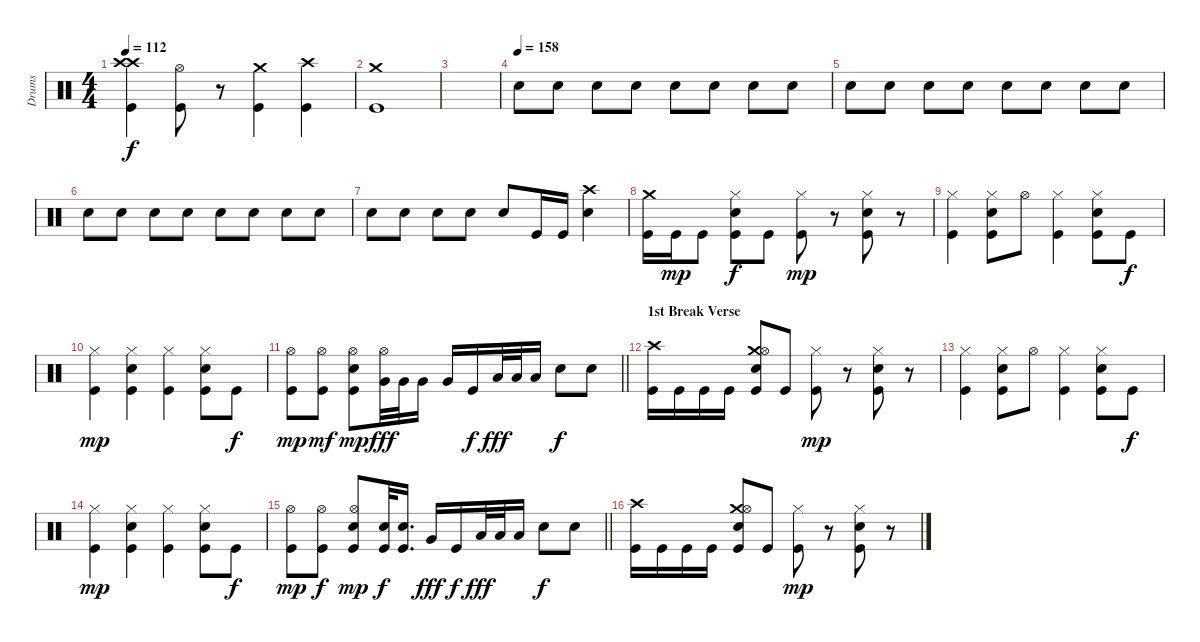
\track ("Drums" "Drums") {instrument percussion}
\staff {score}
\articulation defaults
\ts (4 4)
\tempo 112
\clef neutral
\ks c
("Crash high (hit)" "Crash high (hit)" "Kick (hit)").4{dy f} ("Hi-Hat (open)" "Kick (hit)").8 r.8 ("Crash medium (hit)" "Kick (hit)").4 ("Crash high (hit)" "Kick (hit)").4 |
("Crash medium (hit)" "Kick (hit)").1 |
|
\tempo (158)
"Snare (hit) 2".8{volume 16} "Snare (hit) 2".8 "Snare (hit) 2".8 "Snare (hit) 2".8 "Snare (hit) 2".8 "Snare (hit) 2".8 "Snare (hit) 2".8 "Snare (hit) 2".8 |
"Snare (hit) 2".8 "Snare (hit) 2".8 "Snare (hit) 2".8 "Snare (hit) 2".8 "Snare (hit) 2".8 "Snare (hit) 2".8 "Snare (hit) 2".8 "Snare (hit) 2".8 |
"Snare (hit) 2".8 "Snare (hit) 2".8 "Snare (hit) 2".8 "Snare (hit) 2".8 "Snare (hit) 2".8 "Snare (hit) 2".8 "Snare (hit) 2".8 "Snare (hit) 2".8 |
"Snare (hit) 2".8 "Snare (hit) 2".8 "Snare (hit) 2".8 "Snare (hit) 2".8 "Snare (hit) 2".8 "Kick (hit)".16 "Kick (hit)".16 ("Crash high (hit)" "Snare (hit) 2").4 |
("Crash medium (hit)" "Kick (hit)").16 "Kick (hit)".16{dy mp} "Kick (hit)".8 ("Hi-Hat (closed)" "Snare (hit) 2" "Kick (hit)").8{dy f} "Kick (hit)".8 ("Hi-Hat (closed)" "Kick (hit)").8{dy mp} r.8 ("Hi-Hat (closed)" "Snare (hit) 2" "Kick (hit)").8 r.8 |
("Hi-Hat (closed)" "Kick (hit)").4 ("Hi-Hat (closed)" "Snare (hit) 2" "Kick (hit)").8 "Hi-Hat (open)".8 ("Hi-Hat (closed)" "Kick (hit)").4 ("Hi-Hat (closed)" "Snare (hit) 2" "Kick (hit)").8 "Kick (hit)".8{dy f} |
("Hi-Hat (closed)" "Kick (hit)").4{dy mp} ("Hi-Hat (closed)" "Snare (hit) 2" "Kick (hit)").4 ("Hi-Hat (closed)" "Kick (hit)").4 ("Hi-Hat (closed)" "Snare (hit) 2" "Kick (hit)").8 "Kick (hit)".8{dy f} |
\barLineRight lightlight
("Hi-Hat (open)" "Kick (hit)").8{dy mp} ("Hi-Hat (open)" "Kick (hit)").8{dy mf} ("Hi-Hat (open)" "Snare (hit) 2" "Kick (hit)").8{dy mp} ("Hi-Hat (open)" "Very Low Tom (hit)").32{dy fff balance 16} "Very Low Tom (hit)".32{volume 11 balance 14} "Very Low Tom (hit)".16{balance 10} "Very Low Tom (hit)".16 "Kick (hit)".16{dy f balance 8} "Low Tom (hit)".32{dy fff balance 0} "Low Tom (hit)".32{balance 0} "Low Tom (hit)".16{balance 0} "Snare (hit) 2".8{dy f volume 13 balance 8} "Snare (hit) 2".8 |
\section ("" "1st Break Verse")
("Crash high (hit)" "Kick (hit)").16 "Kick (hit)".16 "Kick (hit)".16 "Kick (hit)".16 ("Crash medium (hit)" "Hi-Hat (open)" "Snare (hit) 2" "Kick (hit)").8 "Kick (hit)".8 ("Hi-Hat (closed)" "Kick (hit)").8{dy mp} r.8 ("Hi-Hat (closed)" "Snare (hit) 2" "Kick (hit)").8 r.8 |
("Hi-Hat (closed)" "Kick (hit)").4 ("Hi-Hat (closed)" "Snare (hit) 2" "Kick (hit)").8 "Hi-Hat (open)".8 ("Hi-Hat (closed)" "Kick (hit)").4 ("Hi-Hat (closed)" "Snare (hit) 2" "Kick (hit)").8 "Kick (hit)".8{dy f} |
("Hi-Hat (closed)" "Kick (hit)").4{dy mp} ("Hi-Hat (closed)" "Snare (hit) 2" "Kick (hit)").4 ("Hi-Hat (closed)" "Kick (hit)").4 ("Hi-Hat (closed)" "Snare (hit) 2" "Kick (hit)").8 "Kick (hit)".8{dy f} |
\barLineRight lightlight
("Hi-Hat (open)" "Kick (hit)").8{dy mp} ("Hi-Hat (open)" "Kick (hit)").8{dy f} ("Hi-Hat (open)" "Snare (hit) 2" "Kick (hit)").8{dy mp} ("Snare (hit) 2" "Kick (hit)").32{dy f} ("Snare (hit) 2" "Kick (hit)").16{d} "Very Low Tom (hit)".16{dy fff} "Kick (hit)".16{dy f balance 8} "Low Tom (hit)".32{dy fff balance 0} "Low Tom (hit)".32{balance 0} "Low Tom (hit)".16{balance 0} "Snare (hit) 2".8{dy f volume 13 balance 8} "Snare (hit) 2".8 |
("Crash high (hit)" "Kick (hit)").16 "Kick (hit)".16 "Kick (hit)".16 "Kick (hit)".16 ("Crash medium (hit)" "Hi-Hat (open)" "Snare (hit) 2" "Kick (hit)").8 "Kick (hit)".8 ("Hi-Hat (closed)" "Kick (hit)").8{dy mp} r.8 ("Hi-Hat (closed)" "Snare (hit) 2" "Kick (hit)").8 r.8
